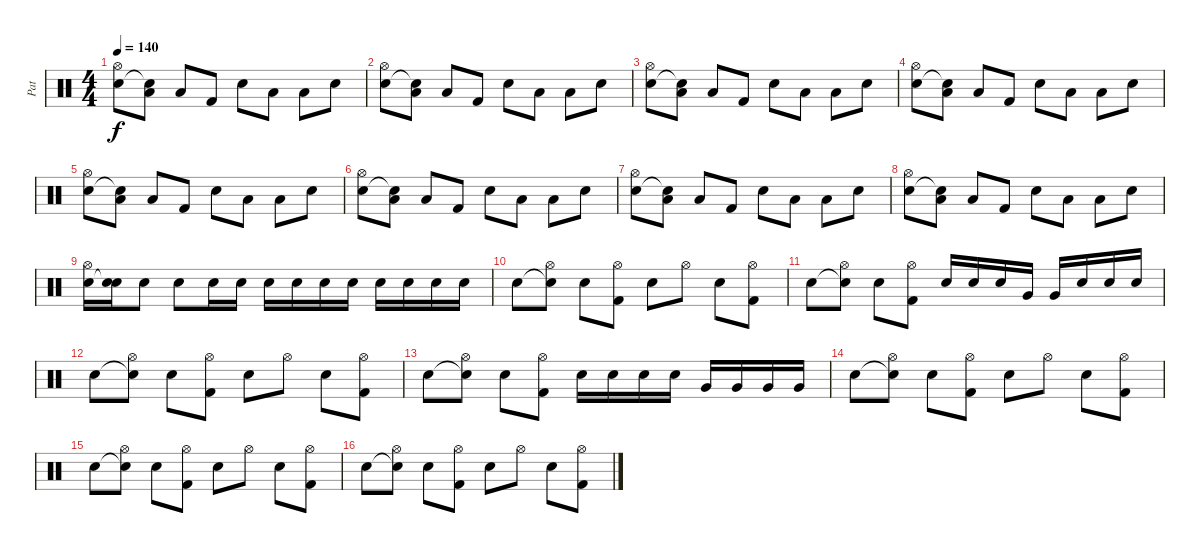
\track ("Pat" "Pat") {instrument percussion}
\staff {score}
\articulation defaults
\ts (4 4)
\tempo 140
\clef neutral
\ks c
("Electric Snare (hit)" "Hi-Hat (open)").8{dy f} ("Snare (hit)"{t} "Low Floor Tom (hit)").8 "Low Floor Tom (hit)".8 "Kick (hit) 2".8 "Electric Snare (hit)".8 "Low Floor Tom (hit)".8 "Low Floor Tom (hit)".8 "Electric Snare (hit)".8 |
("Electric Snare (hit)" "Hi-Hat (open)").8 ("Snare (hit)"{t} "Low Floor Tom (hit)").8 "Low Floor Tom (hit)".8 "Kick (hit) 2".8 "Electric Snare (hit)".8 "Low Floor Tom (hit)".8 "Low Floor Tom (hit)".8 "Electric Snare (hit)".8 |
("Electric Snare (hit)" "Hi-Hat (open)").8 ("Snare (hit)"{t} "Low Floor Tom (hit)").8 "Low Floor Tom (hit)".8 "Kick (hit) 2".8 "Electric Snare (hit)".8 "Low Floor Tom (hit)".8 "Low Floor Tom (hit)".8 "Electric Snare (hit)".8 |
("Electric Snare (hit)" "Hi-Hat (open)").8 ("Snare (hit)"{t} "Low Floor Tom (hit)").8 "Low Floor Tom (hit)".8 "Kick (hit) 2".8 "Electric Snare (hit)".8 "Low Floor Tom (hit)".8 "Low Floor Tom (hit)".8 "Electric Snare (hit)".8 |
("Electric Snare (hit)" "Hi-Hat (open)").8 ("Snare (hit)"{t} "Low Floor Tom (hit)").8 "Low Floor Tom (hit)".8 "Kick (hit) 2".8 "Electric Snare (hit)".8 "Low Floor Tom (hit)".8 "Low Floor Tom (hit)".8 "Electric Snare (hit)".8 |
("Electric Snare (hit)" "Hi-Hat (open)").8 ("Snare (hit)"{t} "Low Floor Tom (hit)").8 "Low Floor Tom (hit)".8 "Kick (hit) 2".8 "Electric Snare (hit)".8 "Low Floor Tom (hit)".8 "Low Floor Tom (hit)".8 "Electric Snare (hit)".8 |
("Electric Snare (hit)" "Hi-Hat (open)").8 ("Snare (hit)"{t} "Low Floor Tom (hit)").8 "Low Floor Tom (hit)".8 "Kick (hit) 2".8 "Electric Snare (hit)".8 "Low Floor Tom (hit)".8 "Low Floor Tom (hit)".8 "Electric Snare (hit)".8 |
("Electric Snare (hit)" "Hi-Hat (open)").8 ("Snare (hit)"{t} "Low Floor Tom (hit)").8 "Low Floor Tom (hit)".8 "Kick (hit) 2".8 "Electric Snare (hit)".8 "Low Floor Tom (hit)".8 "Low Floor Tom (hit)".8 "Electric Snare (hit)".8 |
("Electric Snare (hit)" "Hi-Hat (open)").16 ("Snare (hit)"{t} "Electric Snare (hit)").16 "Electric Snare (hit)".8 "Electric Snare (hit)".8 "Electric Snare (hit)".16 "Electric Snare (hit)".16 "Electric Snare (hit)".16 "Electric Snare (hit)".16 "Electric Snare (hit)".16 "Electric Snare (hit)".16 "Electric Snare (hit)".16 "Electric Snare (hit)".16 "Electric Snare (hit)".16 "Electric Snare (hit)".16 |
"Snare (hit) 2".8 ("Snare (hit)"{t} "Hi-Hat (open)").8 "Snare (hit) 2".8 ("Kick (hit) 2" "Hi-Hat (open)").8 "Snare (hit) 2".8 "Hi-Hat (open)".8 "Snare (hit) 2".8 ("Kick (hit) 2" "Hi-Hat (open)").8 |
"Snare (hit) 2".8 ("Snare (hit)"{t} "Hi-Hat (open)").8 "Snare (hit) 2".8 ("Kick (hit) 2" "Hi-Hat (open)").8 "Snare (hit) 2".16 "Snare (hit) 2".16 "Snare (hit) 2".16 "Very Low Tom (hit)".16 "Very Low Tom (hit)".16 "Snare (hit) 2".16 "Snare (hit) 2".16 "Snare (hit) 2".16 |
"Snare (hit) 2".8 ("Snare (hit)"{t} "Hi-Hat (open)").8 "Snare (hit) 2".8 ("Kick (hit) 2" "Hi-Hat (open)").8 "Snare (hit) 2".8 "Hi-Hat (open)".8 "Snare (hit) 2".8 ("Kick (hit) 2" "Hi-Hat (open)").8 |
"Snare (hit) 2".8 ("Snare (hit)"{t} "Hi-Hat (open)").8 "Snare (hit) 2".8 ("Kick (hit) 2" "Hi-Hat (open)").8 "Snare (hit) 2".16 "Snare (hit) 2".16 "Snare (hit) 2".16 "Snare (hit) 2".16 "Very Low Tom (hit)".16 "Very Low Tom (hit)".16 "Very Low Tom (hit)".16 "Very Low Tom (hit)".16 |
"Snare (hit) 2".8 ("Snare (hit)"{t} "Hi-Hat (open)").8 "Snare (hit) 2".8 ("Kick (hit) 2" "Hi-Hat (open)").8 "Snare (hit) 2".8 "Hi-Hat (open)".8 "Snare (hit) 2".8 ("Kick (hit) 2" "Hi-Hat (open)").8 |
"Snare (hit) 2".8 ("Snare (hit)"{t} "Hi-Hat (open)").8 "Snare (hit) 2".8 ("Kick (hit) 2" "Hi-Hat (open)").8 "Snare (hit) 2".8 "Hi-Hat (open)".8 "Snare (hit) 2".8 ("Kick (hit) 2" "Hi-Hat (open)").8 |
"Snare (hit) 2".8 ("Snare (hit)"{t} "Hi-Hat (open)").8 "Snare (hit) 2".8 ("Kick (hit) 2" "Hi-Hat (open)").8 "Snare (hit) 2".8 "Hi-Hat (open)".8 "Snare (hit) 2".8 ("Kick (hit) 2" "Hi-Hat (open)").8
